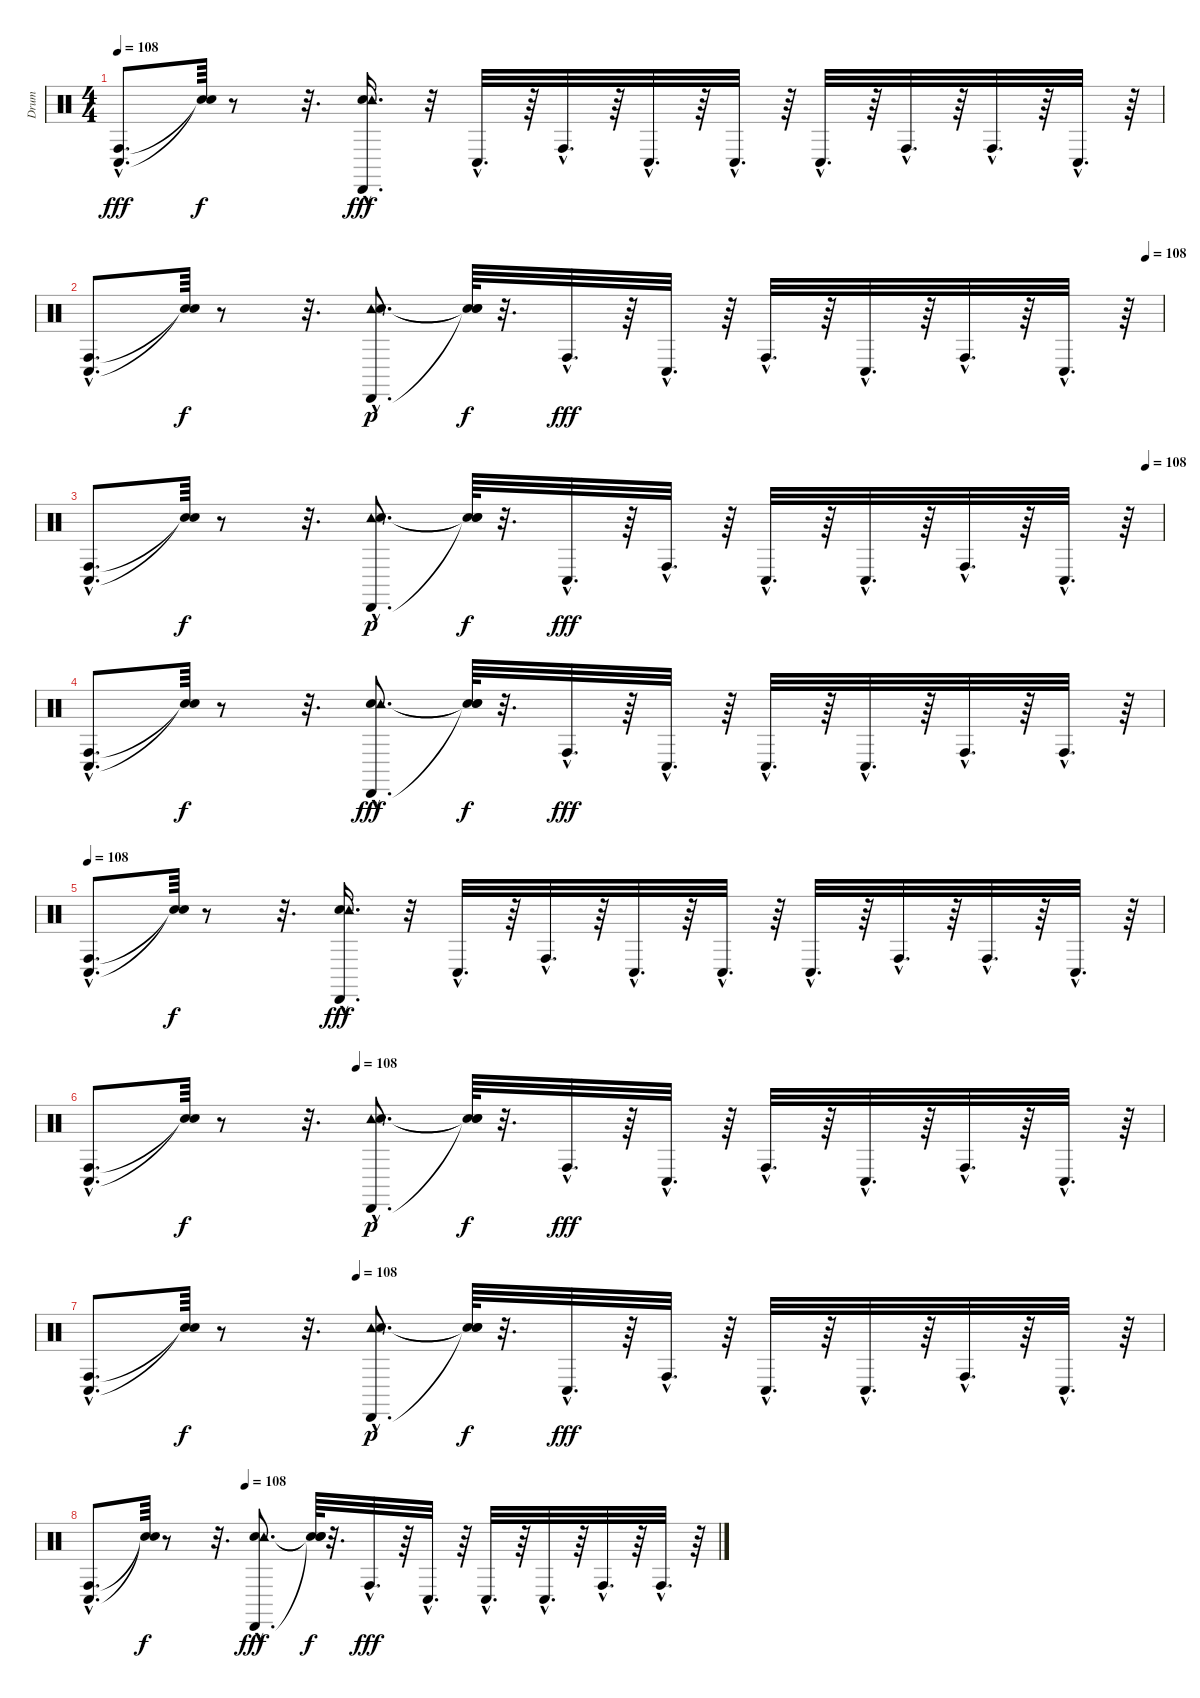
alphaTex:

\track ("Drum" "Drum") {instrument percussion}
\staff {score}
\articulation defaults
\ts (4 4)
\tempo 108
\clef neutral
\ks c
("Conga low (hit)"{hac} "Conga high (hit)"{hac}).8{d dy fff} ("Snare (hit)"{t} "Snare (hit)"{t}).64{dy f} r.8 r.32{d} ("Snare (hit) 2"{hac} "Tambourine (hit)"{hac} "Cabasa (hit)"{hac}).16{d dy fff} r.32 "Conga low (hit)"{hac}.32{d} r.64 "Conga high (hit)"{hac}.32{d} r.64 "Conga low (hit)"{hac}.32{d} r.64 "Conga low (hit)"{hac}.32{d} r.64 "Conga low (hit)"{hac}.32{d} r.64 "Conga high (hit)"{hac}.32{d} r.64 "Conga high (hit)"{hac}.32{d} r.64 "Conga low (hit)"{hac}.32{d} r.64 |
\tempo (108 0.984375)
("Conga high (hit)"{hac} "Conga low (hit)"{hac}).8{d} ("Snare (hit)"{t} "Snare (hit)"{t}).64{dy f} r.8 r.32{d} ("Cabasa (hit)"{hac} "Tambourine (hit)"{hac} "Snare (hit) 2"{hac}).8{d dy p} ("Snare (hit)"{t} "Snare (hit)"{t} "Snare (hit)"{t}).64{dy f} r.32{d} "Conga high (hit)"{hac}.32{d dy fff} r.64 "Conga low (hit)"{hac}.32{d} r.64 "Conga high (hit)"{hac}.32{d} r.64 "Conga low (hit)"{hac}.32{d} r.64 "Conga high (hit)"{hac}.32{d} r.64 "Conga low (hit)"{hac}.32{d} r.64 |
\tempo (108 0.984375)
("Conga high (hit)"{hac} "Conga low (hit)"{hac}).8{d} ("Snare (hit)"{t} "Snare (hit)"{t}).64{dy f} r.8 r.32{d} ("Cabasa (hit)"{hac} "Tambourine (hit)"{hac} "Snare (hit) 2"{hac}).8{d dy p} ("Snare (hit)"{t} "Snare (hit)"{t} "Snare (hit)"{t}).64{dy f} r.32{d} "Conga low (hit)"{hac}.32{d dy fff} r.64 "Conga high (hit)"{hac}.32{d} r.64 "Conga low (hit)"{hac}.32{d} r.64 "Conga low (hit)"{hac}.32{d} r.64 "Conga high (hit)"{hac}.32{d} r.64 "Conga low (hit)"{hac}.32{d} r.64 |
("Conga low (hit)"{hac} "Conga high (hit)"{hac}).8{d} ("Snare (hit)"{t} "Snare (hit)"{t}).64{dy f} r.8 r.32{d} ("Snare (hit) 2"{hac} "Tambourine (hit)"{hac} "Cabasa (hit)"{hac}).8{d dy fff} ("Snare (hit)"{t} "Snare (hit)"{t} "Snare (hit)"{t}).64{dy f} r.32{d} "Conga high (hit)"{hac}.32{d dy fff} r.64 "Conga low (hit)"{hac}.32{d} r.64 "Conga low (hit)"{hac}.32{d} r.64 "Conga low (hit)"{hac}.32{d} r.64 "Conga high (hit)"{hac}.32{d} r.64 "Conga high (hit)"{hac}.32{d} r.64 |
\tempo 108
("Conga low (hit)"{hac} "Conga high (hit)"{hac}).8{d} ("Snare (hit)"{t} "Snare (hit)"{t}).64{dy f} r.8 r.32{d} ("Snare (hit) 2"{hac} "Tambourine (hit)"{hac} "Cabasa (hit)"{hac}).16{d dy fff} r.32 "Conga low (hit)"{hac}.32{d} r.64 "Conga high (hit)"{hac}.32{d} r.64 "Conga low (hit)"{hac}.32{d} r.64 "Conga low (hit)"{hac}.32{d} r.64 "Conga low (hit)"{hac}.32{d} r.64 "Conga high (hit)"{hac}.32{d} r.64 "Conga high (hit)"{hac}.32{d} r.64 "Conga low (hit)"{hac}.32{d} r.64 |
\tempo (108 0.25)
("Conga high (hit)"{hac} "Conga low (hit)"{hac}).8{d} ("Snare (hit)"{t} "Snare (hit)"{t}).64{dy f} r.8 r.32{d} ("Cabasa (hit)"{hac} "Tambourine (hit)"{hac} "Snare (hit) 2"{hac}).8{d dy p} ("Snare (hit)"{t} "Snare (hit)"{t} "Snare (hit)"{t}).64{dy f} r.32{d} "Conga high (hit)"{hac}.32{d dy fff} r.64 "Conga low (hit)"{hac}.32{d} r.64 "Conga high (hit)"{hac}.32{d} r.64 "Conga low (hit)"{hac}.32{d} r.64 "Conga high (hit)"{hac}.32{d} r.64 "Conga low (hit)"{hac}.32{d} r.64 |
\tempo (108 0.25)
("Conga high (hit)"{hac} "Conga low (hit)"{hac}).8{d} ("Snare (hit)"{t} "Snare (hit)"{t}).64{dy f} r.8 r.32{d} ("Cabasa (hit)"{hac} "Tambourine (hit)"{hac} "Snare (hit) 2"{hac}).8{d dy p} ("Snare (hit)"{t} "Snare (hit)"{t} "Snare (hit)"{t}).64{dy f} r.32{d} "Conga low (hit)"{hac}.32{d dy fff} r.64 "Conga high (hit)"{hac}.32{d} r.64 "Conga low (hit)"{hac}.32{d} r.64 "Conga low (hit)"{hac}.32{d} r.64 "Conga high (hit)"{hac}.32{d} r.64 "Conga low (hit)"{hac}.32{d} r.64 |
\tempo (108 0.25)
("Conga low (hit)"{hac} "Conga high (hit)"{hac}).8{d} ("Snare (hit)"{t} "Snare (hit)"{t}).64{dy f} r.8 r.32{d} ("Snare (hit) 2"{hac} "Tambourine (hit)"{hac} "Cabasa (hit)"{hac}).8{d dy fff} ("Snare (hit)"{t} "Snare (hit)"{t} "Snare (hit)"{t}).64{dy f} r.32{d} "Conga high (hit)"{hac}.32{d dy fff} r.64 "Conga low (hit)"{hac}.32{d} r.64 "Conga low (hit)"{hac}.32{d} r.64 "Conga low (hit)"{hac}.32{d} r.64 "Conga high (hit)"{hac}.32{d} r.64 "Conga high (hit)"{hac}.32{d} r.64
